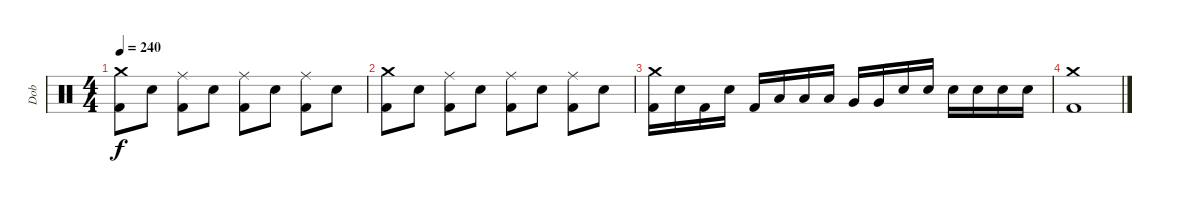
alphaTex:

\track ("Dob" "Dob") {instrument percussion}
\staff {score}
\articulation defaults
\ts (4 4)
\tempo 240
\clef neutral
\ks c
("Crash medium (hit)" "Kick (hit) 2").8{dy f} "Electric Snare (hit)".8 ("Ride (middle)" "Kick (hit) 2").8 "Electric Snare (hit)".8 ("Ride (middle)" "Kick (hit) 2").8 "Electric Snare (hit)".8 ("Ride (middle)" "Kick (hit) 2").8 "Electric Snare (hit)".8 |
("Crash medium (hit)" "Kick (hit) 2").8 "Electric Snare (hit)".8 ("Ride (middle)" "Kick (hit) 2").8 "Electric Snare (hit)".8 ("Ride (middle)" "Kick (hit) 2").8 "Electric Snare (hit)".8 ("Ride (middle)" "Kick (hit) 2").8 "Electric Snare (hit)".8 |
("Crash medium (hit)" "Kick (hit) 2").16 "Electric Snare (hit)".16 "Kick (hit) 2".16 "Electric Snare (hit)".16 "Kick (hit) 2".16 "Low Tom (hit)".16 "Low Tom (hit)".16 "Low Tom (hit)".16 "Very Low Tom (hit)".16 "Very Low Tom (hit)".16 "Electric Snare (hit)".16 "Electric Snare (hit)".16 "Electric Snare (hit)".16 "Electric Snare (hit)".16 "Electric Snare (hit)".16 "Electric Snare (hit)".16 |
("Crash medium (hit)" "Kick (hit) 2").1
